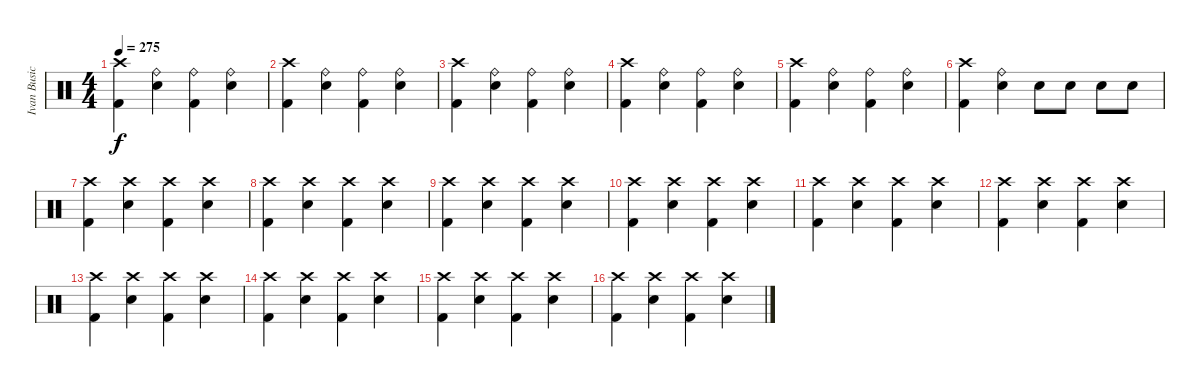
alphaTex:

\track ("Ivan Busic" "Ivan Busic") {instrument percussion}
\staff {score}
\articulation defaults
\ts (4 4)
\tempo 275
\clef neutral
\ks c
("Crash high (hit)" "Kick (hit) 2").4{dy f} ("Ride (bell)" "Electric Snare (hit)").4 ("Ride (bell)" "Kick (hit) 2").4 ("Ride (bell)" "Electric Snare (hit)").4 |
("Crash high (hit)" "Kick (hit) 2").4 ("Ride (bell)" "Electric Snare (hit)").4 ("Ride (bell)" "Kick (hit) 2").4 ("Ride (bell)" "Electric Snare (hit)").4 |
("Crash high (hit)" "Kick (hit) 2").4 ("Ride (bell)" "Electric Snare (hit)").4 ("Ride (bell)" "Kick (hit) 2").4 ("Ride (bell)" "Electric Snare (hit)").4 |
("Crash high (hit)" "Kick (hit) 2").4 ("Ride (bell)" "Electric Snare (hit)").4 ("Ride (bell)" "Kick (hit) 2").4 ("Ride (bell)" "Electric Snare (hit)").4 |
("Crash high (hit)" "Kick (hit) 2").4 ("Ride (bell)" "Electric Snare (hit)").4 ("Ride (bell)" "Kick (hit) 2").4 ("Ride (bell)" "Electric Snare (hit)").4 |
("Crash high (hit)" "Kick (hit) 2").4 ("Ride (bell)" "Electric Snare (hit)").4 "Electric Snare (hit)".8 "Electric Snare (hit)".8 "Electric Snare (hit)".8 "Electric Snare (hit)".8 |
("Crash high (hit)" "Kick (hit) 2").4 ("Crash high (hit)" "Electric Snare (hit)").4 ("Crash high (hit)" "Kick (hit) 2").4 ("Crash high (hit)" "Electric Snare (hit)").4 |
("Crash high (hit)" "Kick (hit) 2").4 ("Crash high (hit)" "Electric Snare (hit)").4 ("Crash high (hit)" "Kick (hit) 2").4 ("Crash high (hit)" "Electric Snare (hit)").4 |
("Crash high (hit)" "Kick (hit) 2").4 ("Crash high (hit)" "Electric Snare (hit)").4 ("Crash high (hit)" "Kick (hit) 2").4 ("Crash high (hit)" "Electric Snare (hit)").4 |
("Crash high (hit)" "Kick (hit) 2").4 ("Crash high (hit)" "Electric Snare (hit)").4 ("Crash high (hit)" "Kick (hit) 2").4 ("Crash high (hit)" "Electric Snare (hit)").4 |
("Crash high (hit)" "Kick (hit) 2").4 ("Crash high (hit)" "Electric Snare (hit)").4 ("Crash high (hit)" "Kick (hit) 2").4 ("Crash high (hit)" "Electric Snare (hit)").4 |
("Crash high (hit)" "Kick (hit) 2").4 ("Crash high (hit)" "Electric Snare (hit)").4 ("Crash high (hit)" "Kick (hit) 2").4 ("Crash high (hit)" "Electric Snare (hit)").4 |
("Crash high (hit)" "Kick (hit) 2").4 ("Crash high (hit)" "Electric Snare (hit)").4 ("Crash high (hit)" "Kick (hit) 2").4 ("Crash high (hit)" "Electric Snare (hit)").4 |
("Crash high (hit)" "Kick (hit) 2").4 ("Crash high (hit)" "Electric Snare (hit)").4 ("Crash high (hit)" "Kick (hit) 2").4 ("Crash high (hit)" "Electric Snare (hit)").4 |
("Crash high (hit)" "Kick (hit) 2").4 ("Crash high (hit)" "Electric Snare (hit)").4 ("Crash high (hit)" "Kick (hit) 2").4 ("Crash high (hit)" "Electric Snare (hit)").4 |
("Crash high (hit)" "Kick (hit) 2").4 ("Crash high (hit)" "Electric Snare (hit)").4 ("Crash high (hit)" "Kick (hit) 2").4 ("Crash high (hit)" "Electric Snare (hit)").4
